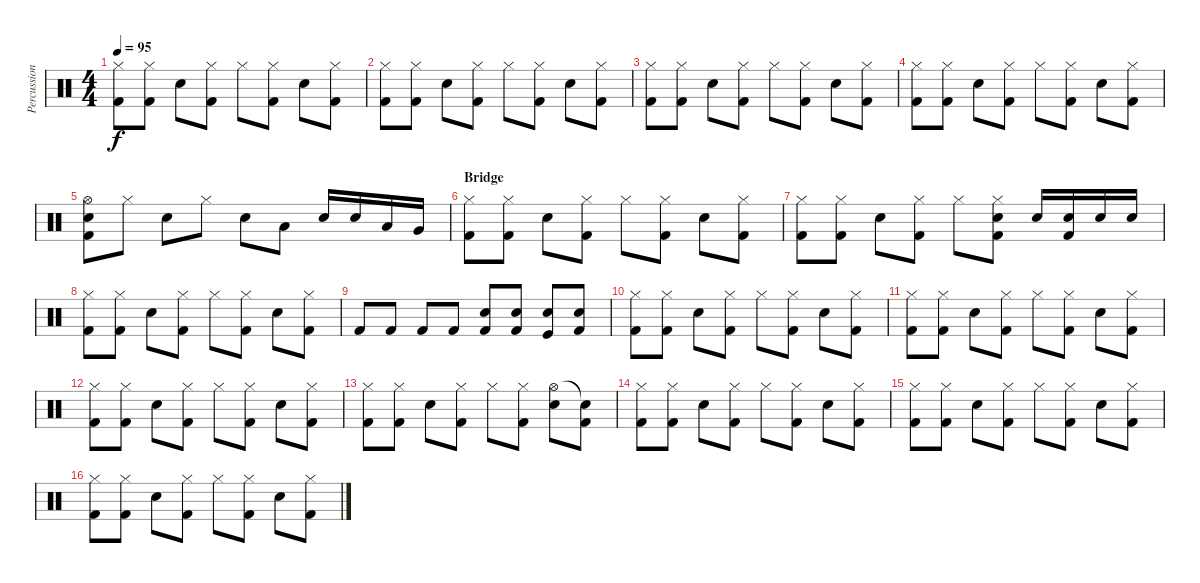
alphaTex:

\track ("Percussion" "Percussion") {instrument percussion}
\staff {score}
\articulation defaults
\ts (4 4)
\tempo 95
\clef neutral
\ks c
("Hi-Hat (closed)" "Kick (hit) 2").8{dy f} ("Hi-Hat (closed)" "Kick (hit) 2").8 "Snare (hit) 2".8 ("Hi-Hat (closed)" "Kick (hit) 2").8 "Hi-Hat (closed)".8 ("Hi-Hat (closed)" "Kick (hit) 2").8 "Snare (hit) 2".8 ("Hi-Hat (closed)" "Kick (hit) 2").8 |
("Hi-Hat (closed)" "Kick (hit) 2").8 ("Hi-Hat (closed)" "Kick (hit) 2").8 "Snare (hit) 2".8 ("Hi-Hat (closed)" "Kick (hit) 2").8 "Hi-Hat (closed)".8 ("Hi-Hat (closed)" "Kick (hit) 2").8 "Snare (hit) 2".8 ("Hi-Hat (closed)" "Kick (hit) 2").8 |
("Hi-Hat (closed)" "Kick (hit) 2").8 ("Hi-Hat (closed)" "Kick (hit) 2").8 "Snare (hit) 2".8 ("Hi-Hat (closed)" "Kick (hit) 2").8 "Hi-Hat (closed)".8 ("Hi-Hat (closed)" "Kick (hit) 2").8 "Snare (hit) 2".8 ("Hi-Hat (closed)" "Kick (hit) 2").8 |
("Hi-Hat (closed)" "Kick (hit) 2").8 ("Hi-Hat (closed)" "Kick (hit) 2").8 "Snare (hit) 2".8 ("Hi-Hat (closed)" "Kick (hit) 2").8 "Hi-Hat (closed)".8 ("Hi-Hat (closed)" "Kick (hit) 2").8 "Snare (hit) 2".8 ("Hi-Hat (closed)" "Kick (hit) 2").8 |
("Hi-Hat (open)" "Snare (hit) 2" "Kick (hit) 2").8 "Hi-Hat (closed)".8 "Snare (hit) 2".8 "Hi-Hat (closed)".8 "Snare (hit) 2".8 "Low Floor Tom (hit)".8 "Snare (hit) 2".16 "Snare (hit) 2".16 "Low Tom (hit)".16 "Very Low Tom (hit)".16 |
\section ("" "Bridge")
("Hi-Hat (closed)" "Kick (hit) 2").8 ("Hi-Hat (closed)" "Kick (hit) 2").8 "Snare (hit) 2".8 ("Hi-Hat (closed)" "Kick (hit) 2").8 "Hi-Hat (closed)".8 ("Hi-Hat (closed)" "Kick (hit) 2").8 "Snare (hit) 2".8 ("Hi-Hat (closed)" "Kick (hit) 2").8 |
("Hi-Hat (closed)" "Kick (hit) 2").8 ("Hi-Hat (closed)" "Kick (hit) 2").8 "Snare (hit) 2".8 ("Hi-Hat (closed)" "Kick (hit) 2").8 "Hi-Hat (closed)".8 ("Snare (hit) 2" "Hi-Hat (closed)" "Kick (hit) 2").8 "Snare (hit) 2".16 ("Snare (hit) 2" "Kick (hit) 2").16 "Snare (hit) 2".16 "Snare (hit) 2".16 |
("Hi-Hat (closed)" "Kick (hit) 2").8 ("Hi-Hat (closed)" "Kick (hit) 2").8 "Snare (hit) 2".8 ("Hi-Hat (closed)" "Kick (hit) 2").8 "Hi-Hat (closed)".8 ("Hi-Hat (closed)" "Kick (hit) 2").8 "Snare (hit) 2".8 ("Hi-Hat (closed)" "Kick (hit) 2").8 |
"Kick (hit) 2".8 "Kick (hit) 2".8 "Kick (hit) 2".8 "Kick (hit) 2".8 ("Snare (hit) 2" "Kick (hit) 2").8 ("Snare (hit) 2" "Kick (hit) 2").8 ("Snare (hit) 2" "Kick (hit)").8 ("Snare (hit) 2" "Kick (hit) 2").8 |
("Hi-Hat (closed)" "Kick (hit) 2").8 ("Hi-Hat (closed)" "Kick (hit) 2").8 "Snare (hit) 2".8 ("Hi-Hat (closed)" "Kick (hit) 2").8 "Hi-Hat (closed)".8 ("Hi-Hat (closed)" "Kick (hit) 2").8 "Snare (hit) 2".8 ("Hi-Hat (closed)" "Kick (hit) 2").8 |
("Hi-Hat (closed)" "Kick (hit) 2").8 ("Hi-Hat (closed)" "Kick (hit) 2").8 "Snare (hit) 2".8 ("Hi-Hat (closed)" "Kick (hit) 2").8 "Hi-Hat (closed)".8 ("Hi-Hat (closed)" "Kick (hit) 2").8 "Snare (hit) 2".8 ("Hi-Hat (closed)" "Kick (hit) 2").8 |
("Hi-Hat (closed)" "Kick (hit) 2").8 ("Hi-Hat (closed)" "Kick (hit) 2").8 "Snare (hit) 2".8 ("Hi-Hat (closed)" "Kick (hit) 2").8 "Hi-Hat (closed)".8 ("Hi-Hat (closed)" "Kick (hit) 2").8 "Snare (hit) 2".8 ("Hi-Hat (closed)" "Kick (hit) 2").8 |
("Hi-Hat (closed)" "Kick (hit) 2").8 ("Hi-Hat (closed)" "Kick (hit) 2").8 "Snare (hit) 2".8 ("Hi-Hat (closed)" "Kick (hit) 2").8 "Hi-Hat (closed)".8 ("Hi-Hat (closed)" "Kick (hit) 2").8 ("Hi-Hat (open)" "Snare (hit) 2").8 ("Snare (hit)"{t} "Kick (hit) 2").8 |
("Hi-Hat (closed)" "Kick (hit) 2").8 ("Hi-Hat (closed)" "Kick (hit) 2").8 "Snare (hit) 2".8 ("Hi-Hat (closed)" "Kick (hit) 2").8 "Hi-Hat (closed)".8 ("Hi-Hat (closed)" "Kick (hit) 2").8 "Snare (hit) 2".8 ("Hi-Hat (closed)" "Kick (hit) 2").8 |
("Hi-Hat (closed)" "Kick (hit) 2").8 ("Hi-Hat (closed)" "Kick (hit) 2").8 "Snare (hit) 2".8 ("Hi-Hat (closed)" "Kick (hit) 2").8 "Hi-Hat (closed)".8 ("Hi-Hat (closed)" "Kick (hit) 2").8 "Snare (hit) 2".8 ("Hi-Hat (closed)" "Kick (hit) 2").8 |
("Hi-Hat (closed)" "Kick (hit) 2").8 ("Hi-Hat (closed)" "Kick (hit) 2").8 "Snare (hit) 2".8 ("Hi-Hat (closed)" "Kick (hit) 2").8 "Hi-Hat (closed)".8 ("Hi-Hat (closed)" "Kick (hit) 2").8 "Snare (hit) 2".8 ("Hi-Hat (closed)" "Kick (hit) 2").8
